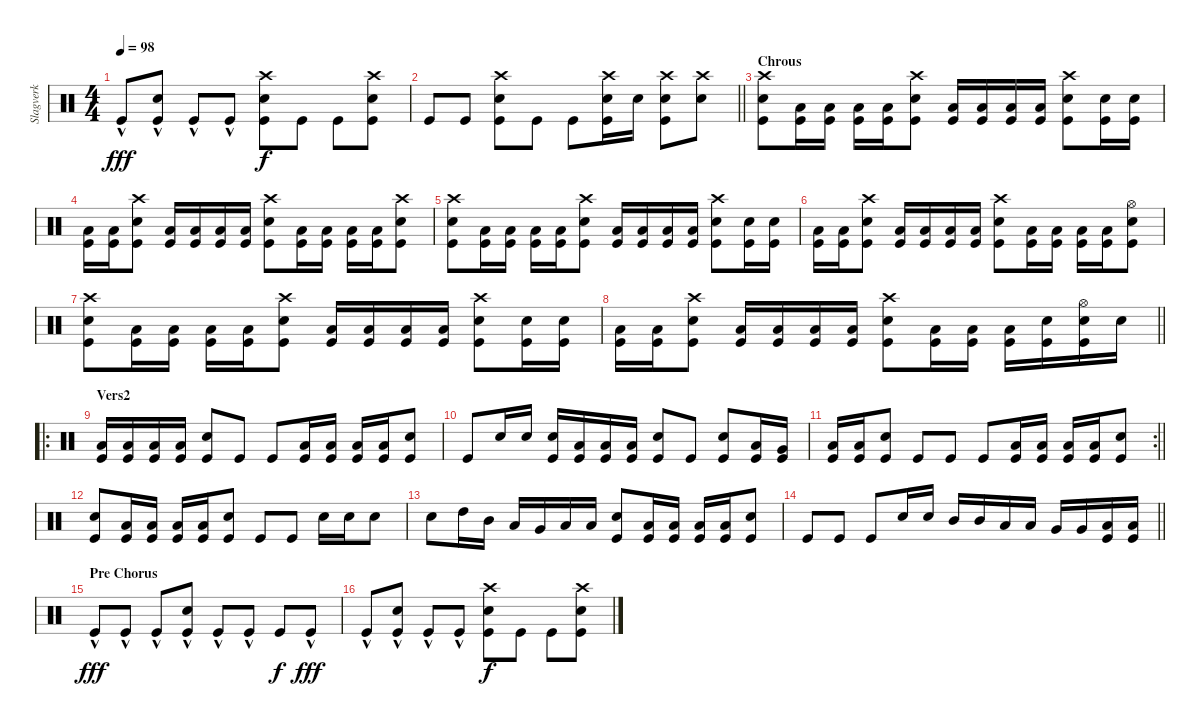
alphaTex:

\track ("Slagverk" "Slagverk") {instrument percussion}
\staff {score}
\articulation defaults
\ts (4 4)
\tempo 98
\clef neutral
\ks c "Kick (hit)"{hac}.8{dy fff}
("Snare (hit) 2" "Kick (hit)"{hac}).8 "Kick (hit)"{hac}.8 "Kick (hit)"{hac}.8 ("Crash high (hit)" "Snare (hit) 2" "Kick (hit)").8{dy f} "Kick (hit)".8 "Kick (hit)".8 ("Crash high (hit)" "Snare (hit) 2" "Kick (hit)").8 |
\barLineRight lightlight "Kick (hit)".8 "Kick (hit)".8
("Crash high (hit)" "Snare (hit) 2" "Kick (hit)").8 "Kick (hit)".8 "Kick (hit)".8 ("Crash high (hit)" "Snare (hit) 2" "Kick (hit)").16 "Snare (hit) 2".16 ("Crash high (hit)" "Snare (hit) 2" "Kick (hit)").8 ("Crash high (hit)" "Snare (hit) 2").8 |
\section ("" "Chrous")
("Crash high (hit)" "Snare (hit) 2" "Kick (hit)").8 ("Low Tom (hit)" "Kick (hit)").16 ("Low Floor Tom (hit)" "Kick (hit)").16 ("Low Tom (hit)" "Kick (hit)").16 ("Low Floor Tom (hit)" "Kick (hit)").16 ("Crash high (hit)" "Snare (hit) 2" "Kick (hit)").8 ("Low Tom (hit)" "Kick (hit)").16 ("Low Floor Tom (hit)" "Kick (hit)").16 ("Low Tom (hit)" "Kick (hit)").16 ("Low Floor Tom (hit)" "Kick (hit)").16 ("Crash high (hit)" "Snare (hit) 2" "Kick (hit)").8 ("Snare (hit) 2" "Kick (hit)").16 ("Snare (hit) 2" "Kick (hit)").16 |
("Low Tom (hit)" "Kick (hit)").16 ("Low Floor Tom (hit)" "Kick (hit)").16 ("Crash high (hit)" "Snare (hit) 2" "Kick (hit)").8 ("Low Tom (hit)" "Kick (hit)").16 ("Low Floor Tom (hit)" "Kick (hit)").16 ("Low Tom (hit)" "Kick (hit)").16 ("Low Floor Tom (hit)" "Kick (hit)").16 ("Crash high (hit)" "Snare (hit) 2" "Kick (hit)").8 ("Low Tom (hit)" "Kick (hit)").16 ("Low Floor Tom (hit)" "Kick (hit)").16 ("Low Tom (hit)" "Kick (hit)").16 ("Low Floor Tom (hit)" "Kick (hit)").16 ("Crash high (hit)" "Snare (hit) 2" "Kick (hit)").8 |
("Crash high (hit)" "Snare (hit) 2" "Kick (hit)").8 ("Low Tom (hit)" "Kick (hit)").16 ("Low Floor Tom (hit)" "Kick (hit)").16 ("Low Tom (hit)" "Kick (hit)").16 ("Low Floor Tom (hit)" "Kick (hit)").16 ("Crash high (hit)" "Snare (hit) 2" "Kick (hit)").8 ("Low Tom (hit)" "Kick (hit)").16 ("Low Floor Tom (hit)" "Kick (hit)").16 ("Low Tom (hit)" "Kick (hit)").16 ("Low Floor Tom (hit)" "Kick (hit)").16 ("Crash high (hit)" "Snare (hit) 2" "Kick (hit)").8 ("Snare (hit) 2" "Kick (hit)").16 ("Snare (hit) 2" "Kick (hit)").16 |
("Low Tom (hit)" "Kick (hit)").16 ("Low Floor Tom (hit)" "Kick (hit)").16 ("Crash high (hit)" "Snare (hit) 2" "Kick (hit)").8 ("Low Tom (hit)" "Kick (hit)").16 ("Low Floor Tom (hit)" "Kick (hit)").16 ("Low Tom (hit)" "Kick (hit)").16 ("Low Floor Tom (hit)" "Kick (hit)").16 ("Crash high (hit)" "Snare (hit) 2" "Kick (hit)").8 ("Low Tom (hit)" "Kick (hit)").16 ("Low Floor Tom (hit)" "Kick (hit)").16 ("Low Tom (hit)" "Kick (hit)").16 ("Low Floor Tom (hit)" "Kick (hit)").16 ("Hi-Hat (open)" "Snare (hit) 2" "Kick (hit)").8 |
("Crash high (hit)" "Snare (hit) 2" "Kick (hit)").8 ("Low Tom (hit)" "Kick (hit)").16 ("Low Floor Tom (hit)" "Kick (hit)").16 ("Low Tom (hit)" "Kick (hit)").16 ("Low Floor Tom (hit)" "Kick (hit)").16 ("Crash high (hit)" "Snare (hit) 2" "Kick (hit)").8 ("Low Tom (hit)" "Kick (hit)").16 ("Low Floor Tom (hit)" "Kick (hit)").16 ("Low Tom (hit)" "Kick (hit)").16 ("Low Floor Tom (hit)" "Kick (hit)").16 ("Crash high (hit)" "Snare (hit) 2" "Kick (hit)").8 ("Snare (hit) 2" "Kick (hit)").16 ("Snare (hit) 2" "Kick (hit)").16 |
\barLineRight lightlight
("Low Tom (hit)" "Kick (hit)").16 ("Low Floor Tom (hit)" "Kick (hit)").16 ("Crash high (hit)" "Snare (hit) 2" "Kick (hit)").8 ("Low Tom (hit)" "Kick (hit)").16 ("Low Floor Tom (hit)" "Kick (hit)").16 ("Low Tom (hit)" "Kick (hit)").16 ("Low Floor Tom (hit)" "Kick (hit)").16 ("Crash high (hit)" "Snare (hit) 2" "Kick (hit)").8 ("Low Tom (hit)" "Kick (hit)").16 ("Low Floor Tom (hit)" "Kick (hit)").16 ("Low Tom (hit)" "Kick (hit)").16 ("Snare (hit) 2" "Kick (hit)").16 ("Hi-Hat (open)" "Snare (hit) 2" "Kick (hit)").16 "Snare (hit) 2".16 |
\ro
\section ("" "Vers2")
("Low Tom (hit)" "Kick (hit)").16 ("Low Floor Tom (hit)" "Kick (hit)").16 ("Low Tom (hit)" "Kick (hit)").16 ("Low Floor Tom (hit)" "Kick (hit)").16 ("Snare (hit) 2" "Kick (hit)").8 "Kick (hit)".8 "Kick (hit)".8 ("Low Tom (hit)" "Kick (hit)").16 ("Low Floor Tom (hit)" "Kick (hit)").16 ("Low Tom (hit)" "Kick (hit)").16 ("Low Floor Tom (hit)" "Kick (hit)").16 ("Snare (hit) 2" "Kick (hit)").8 |
"Kick (hit)".8 "Snare (hit) 2".16 "Snare (hit) 2".16 ("Snare (hit) 2" "Kick (hit)").16 ("Low Floor Tom (hit)" "Kick (hit)").16 ("Low Tom (hit)" "Kick (hit)").16 ("Low Floor Tom (hit)" "Kick (hit)").16 ("Snare (hit) 2" "Kick (hit)").8 "Kick (hit)".8 ("Snare (hit) 2" "Kick (hit)").8 ("Low Tom (hit)" "Kick (hit)").16 ("Very Low Tom (hit)" "Kick (hit)").16 |
\rc 2
\barLineRight lightlight
("Low Floor Tom (hit)" "Kick (hit)").16 ("Low Tom (hit)" "Kick (hit)").16 ("Snare (hit) 2" "Kick (hit)").8 "Kick (hit)".8 "Kick (hit)".8 "Kick (hit)".8 ("Low Tom (hit)" "Kick (hit)").16 ("Low Floor Tom (hit)" "Kick (hit)").16 ("Low Tom (hit)" "Kick (hit)").16 ("Low Floor Tom (hit)" "Kick (hit)").16 ("Snare (hit) 2" "Kick (hit)").8 |
("Snare (hit) 2" "Kick (hit)").8 ("Low Tom (hit)" "Kick (hit)").16 ("Low Floor Tom (hit)" "Kick (hit)").16 ("Low Tom (hit)" "Kick (hit)").16 ("Low Floor Tom (hit)" "Kick (hit)").16 ("Snare (hit) 2" "Kick (hit)").8 "Kick (hit)".8 "Kick (hit)".8 "Snare (hit) 2".16 "Snare (hit) 2".16 "Snare (hit) 2".8 |
"Snare (hit) 2".8 "High Tom (hit)".16 "Mid Tom (hit)".16 "Low Tom (hit)".16 "Very Low Tom (hit)".16 "Low Floor Tom (hit)".16 "Low Floor Tom (hit)".16 ("Snare (hit) 2" "Kick (hit)").8 ("Low Tom (hit)" "Kick (hit)").16 ("Low Floor Tom (hit)" "Kick (hit)").16 ("Low Tom (hit)" "Kick (hit)").16 ("Low Floor Tom (hit)" "Kick (hit)").16 ("Snare (hit) 2" "Kick (hit)").8 |
\barLineRight lightlight "Kick (hit)".8 "Kick (hit)".8 "Kick (hit)".8 "Snare (hit) 2".16 "Snare (hit) 2".16 "Mid Tom (hit)".16 "Mid Tom (hit)".16 "Low Tom (hit)".16 "Low Tom (hit)".16 "Very Low Tom (hit)".16 "Very Low Tom (hit)".16
("Low Floor Tom (hit)" "Kick (hit)").16 ("Low Floor Tom (hit)" "Kick (hit)").16 |
\section ("" "Pre Chorus")
"Kick (hit)"{hac}.8{dy fff} "Kick (hit)"{hac}.8 "Kick (hit)"{hac}.8 ("Snare (hit) 2" "Kick (hit)"{hac}).8 "Kick (hit)"{hac}.8 "Kick (hit)"{hac}.8 "Kick (hit)".8{dy f} "Kick (hit)"{hac}.8{dy fff} |
"Kick (hit)"{hac}.8 ("Snare (hit) 2" "Kick (hit)"{hac}).8 "Kick (hit)"{hac}.8 "Kick (hit)"{hac}.8 ("Crash high (hit)" "Snare (hit) 2" "Kick (hit)").8{dy f} "Kick (hit)".8 "Kick (hit)".8 ("Crash high (hit)" "Snare (hit) 2" "Kick (hit)").8
